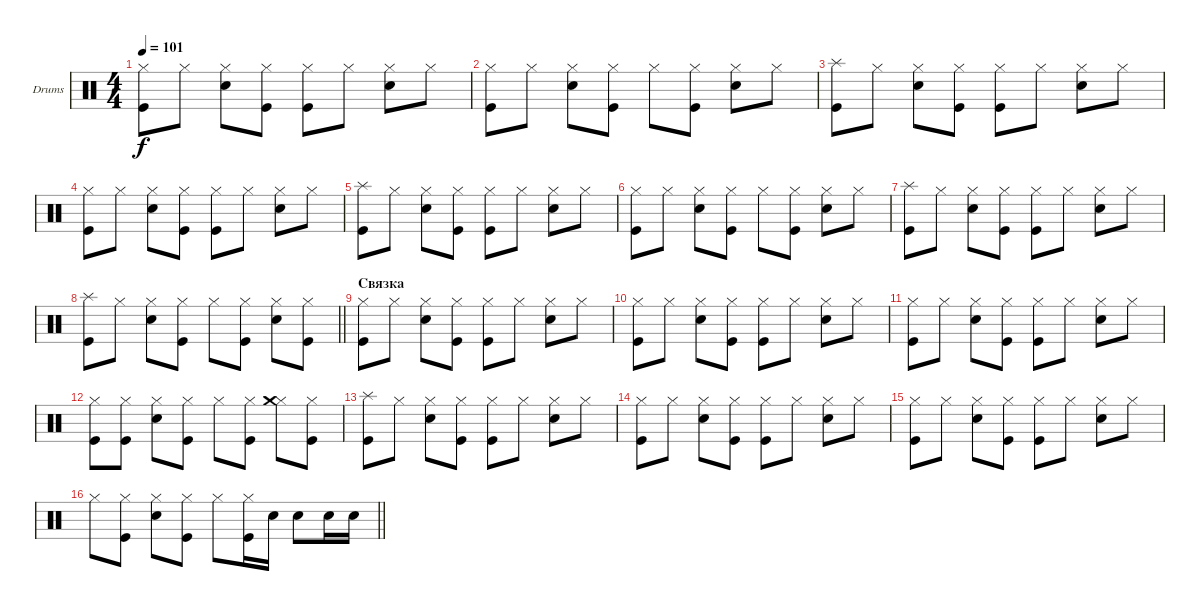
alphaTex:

\bracketExtendMode groupsimilarinstruments
\firstSystemTrackNameOrientation horizontal
\otherSystemsTrackNameOrientation horizontal
\track ("Drumkit" "Drums") {instrument percussion}
\staff {score}
\articulation defaults
\ts (4 4)
\tempo 101
\clef neutral
\ks c
("Hi-Hat (closed)" "Kick (hit)").8{dy f} "Hi-Hat (closed)".8 ("Hi-Hat (closed)" "Snare (hit) 2").8 ("Hi-Hat (closed)" "Kick (hit)").8 ("Hi-Hat (closed)" "Kick (hit)").8 "Hi-Hat (closed)".8 ("Hi-Hat (closed)" "Snare (hit) 2").8 "Hi-Hat (closed)".8 |
("Hi-Hat (closed)" "Kick (hit)").8 "Hi-Hat (closed)".8 ("Hi-Hat (closed)" "Snare (hit) 2").8 ("Hi-Hat (closed)" "Kick (hit)").8 "Hi-Hat (closed)".8 ("Hi-Hat (closed)" "Kick (hit)").8 ("Hi-Hat (closed)" "Snare (hit) 2").8 "Hi-Hat (closed)".8 |
("Splash (hit)" "Kick (hit)").8 "Hi-Hat (closed)".8 ("Hi-Hat (closed)" "Snare (hit) 2").8 ("Hi-Hat (closed)" "Kick (hit)").8 ("Hi-Hat (closed)" "Kick (hit)").8 "Hi-Hat (closed)".8 ("Hi-Hat (closed)" "Snare (hit) 2").8 "Hi-Hat (closed)".8 |
("Hi-Hat (closed)" "Kick (hit)").8 "Hi-Hat (closed)".8 ("Hi-Hat (closed)" "Snare (hit) 2").8 ("Hi-Hat (closed)" "Kick (hit)").8 ("Hi-Hat (closed)" "Kick (hit)").8 "Hi-Hat (closed)".8 ("Hi-Hat (closed)" "Snare (hit) 2").8 "Hi-Hat (closed)".8 |
("Splash (hit)" "Kick (hit)").8 "Hi-Hat (closed)".8 ("Hi-Hat (closed)" "Snare (hit) 2").8 ("Hi-Hat (closed)" "Kick (hit)").8 ("Hi-Hat (closed)" "Kick (hit)").8 "Hi-Hat (closed)".8 ("Hi-Hat (closed)" "Snare (hit) 2").8 "Hi-Hat (closed)".8 |
("Hi-Hat (closed)" "Kick (hit)").8 "Hi-Hat (closed)".8 ("Hi-Hat (closed)" "Snare (hit) 2").8 ("Hi-Hat (closed)" "Kick (hit)").8 "Hi-Hat (closed)".8 ("Hi-Hat (closed)" "Kick (hit)").8 ("Hi-Hat (closed)" "Snare (hit) 2").8 "Hi-Hat (closed)".8 |
("Splash (hit)" "Kick (hit)").8 "Hi-Hat (closed)".8 ("Hi-Hat (closed)" "Snare (hit) 2").8 ("Hi-Hat (closed)" "Kick (hit)").8 ("Hi-Hat (closed)" "Kick (hit)").8 "Hi-Hat (closed)".8 ("Hi-Hat (closed)" "Snare (hit) 2").8 "Hi-Hat (closed)".8 |
\barLineRight lightlight
("Splash (hit)" "Kick (hit)").8 "Hi-Hat (closed)".8 ("Hi-Hat (closed)" "Snare (hit) 2").8 ("Hi-Hat (closed)" "Kick (hit)").8 "Hi-Hat (closed)".8 ("Hi-Hat (closed)" "Kick (hit)").8 ("Hi-Hat (closed)" "Snare (hit) 2").8 ("Hi-Hat (closed)" "Kick (hit)").8 |
\section ("" "Связка")
("Hi-Hat (closed)" "Kick (hit)").8 "Hi-Hat (closed)".8 ("Hi-Hat (closed)" "Snare (hit) 2").8 ("Hi-Hat (closed)" "Kick (hit)").8 ("Hi-Hat (closed)" "Kick (hit)").8 "Hi-Hat (closed)".8 ("Hi-Hat (closed)" "Snare (hit) 2").8 "Hi-Hat (closed)".8 |
("Hi-Hat (closed)" "Kick (hit)").8 "Hi-Hat (closed)".8 ("Hi-Hat (closed)" "Snare (hit) 2").8 ("Hi-Hat (closed)" "Kick (hit)").8 ("Hi-Hat (closed)" "Kick (hit)").8 "Hi-Hat (closed)".8 ("Hi-Hat (closed)" "Snare (hit) 2").8 "Hi-Hat (closed)".8 |
("Hi-Hat (closed)" "Kick (hit)").8 "Hi-Hat (closed)".8 ("Hi-Hat (closed)" "Snare (hit) 2").8 ("Hi-Hat (closed)" "Kick (hit)").8 ("Hi-Hat (closed)" "Kick (hit)").8 "Hi-Hat (closed)".8 ("Hi-Hat (closed)" "Snare (hit) 2").8 "Hi-Hat (closed)".8 |
("Hi-Hat (closed)" "Kick (hit)").8 ("Hi-Hat (closed)" "Kick (hit)").8 ("Hi-Hat (closed)" "Snare (hit) 2").8 ("Hi-Hat (closed)" "Kick (hit)").8 "Hi-Hat (closed)".8 ("Hi-Hat (closed)" "Kick (hit)").8 ("Hi-Hat (closed)" "Crash medium (hit)").8 ("Hi-Hat (closed)" "Kick (hit)").8 |
("Splash (hit)" "Kick (hit)").8 "Hi-Hat (closed)".8 ("Hi-Hat (closed)" "Snare (hit) 2").8 ("Hi-Hat (closed)" "Kick (hit)").8 ("Hi-Hat (closed)" "Kick (hit)").8 "Hi-Hat (closed)".8 ("Hi-Hat (closed)" "Snare (hit) 2").8 "Hi-Hat (closed)".8 |
("Hi-Hat (closed)" "Kick (hit)").8 "Hi-Hat (closed)".8 ("Hi-Hat (closed)" "Snare (hit) 2").8 ("Hi-Hat (closed)" "Kick (hit)").8 ("Hi-Hat (closed)" "Kick (hit)").8 "Hi-Hat (closed)".8 ("Hi-Hat (closed)" "Snare (hit) 2").8 "Hi-Hat (closed)".8 |
("Hi-Hat (closed)" "Kick (hit)").8 "Hi-Hat (closed)".8 ("Hi-Hat (closed)" "Snare (hit) 2").8 ("Hi-Hat (closed)" "Kick (hit)").8 ("Hi-Hat (closed)" "Kick (hit)").8 "Hi-Hat (closed)".8 ("Hi-Hat (closed)" "Snare (hit) 2").8 "Hi-Hat (closed)".8 |
\barLineRight lightlight "Hi-Hat (closed)".8
("Hi-Hat (closed)" "Kick (hit)").8 ("Hi-Hat (closed)" "Snare (hit) 2").8 ("Hi-Hat (closed)" "Kick (hit)").8 "Hi-Hat (closed)".8 ("Hi-Hat (closed)" "Kick (hit)").16 "Snare (hit) 2".16 "Snare (hit) 2".8 "Snare (hit) 2".16 "Snare (hit) 2".16
